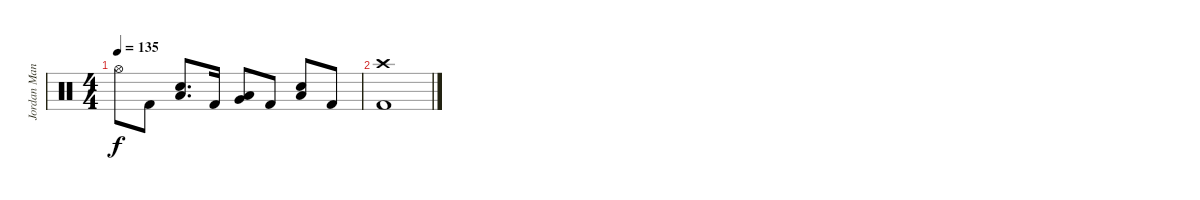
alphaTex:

\track ("Jordan Mancino" "Jordan Man") {instrument percussion}
\staff
\articulation defaults
\ts (4 4)
\tempo 135
\clef neutral
\ks c "Hi-Hat (open)".8{dy f} "Kick (hit) 2".8
("Snare (hit) 2" "Low Floor Tom (hit)").8{d} "Kick (hit) 2".16 ("Very Low Tom (hit)" "Low Floor Tom (hit)").8 "Kick (hit) 2".8 ("Snare (hit) 2" "Low Floor Tom (hit)").8 "Kick (hit) 2".8 |
("Crash high (hit)" "Kick (hit) 2").1
